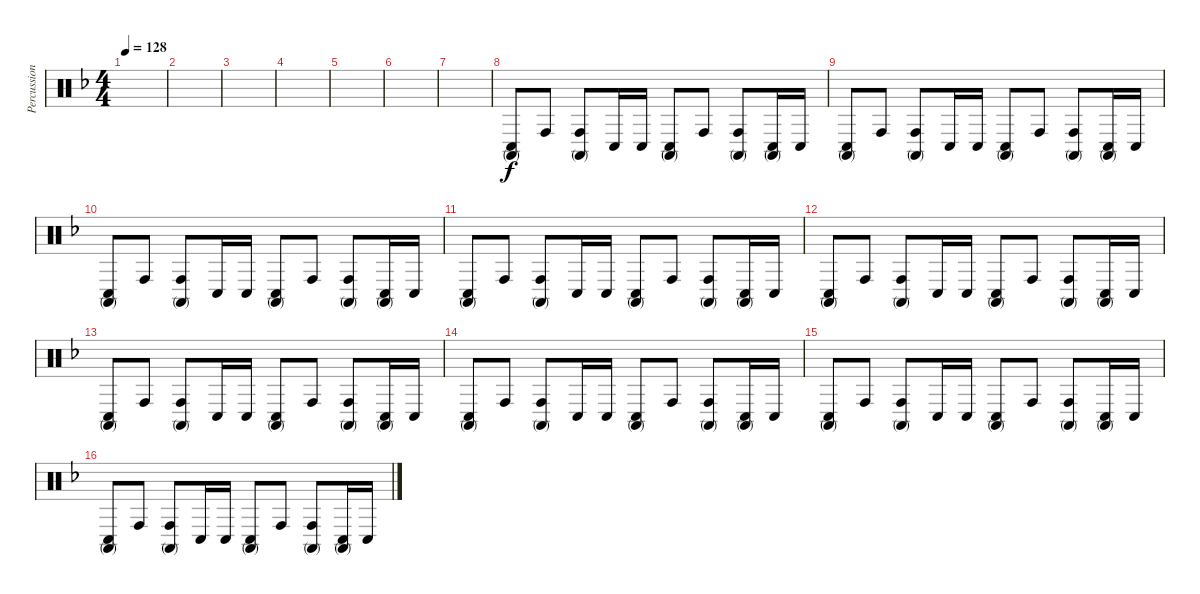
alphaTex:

\track ("Percussion" "Percussion") {instrument percussion}
\staff {score}
\articulation defaults
\ts (4 4)
\tempo 128
\clef neutral
\ks f
|
|
|
|
|
|
|
("Conga high (mute)" "Conga low (hit)").8 "Conga high (hit)".8 ("Conga high (mute)" "Conga high (hit)").8 "Conga low (hit)".16 "Conga low (hit)".16 ("Conga high (mute)" "Conga low (hit)").8 "Conga high (hit)".8 ("Conga high (mute)" "Conga high (hit)").8 ("Conga high (mute)" "Conga low (hit)").16 "Conga low (hit)".16 |
("Conga high (mute)" "Conga low (hit)").8 "Conga high (hit)".8 ("Conga high (mute)" "Conga high (hit)").8 "Conga low (hit)".16 "Conga low (hit)".16 ("Conga high (mute)" "Conga low (hit)").8 "Conga high (hit)".8 ("Conga high (mute)" "Conga high (hit)").8 ("Conga high (mute)" "Conga low (hit)").16 "Conga low (hit)".16 |
("Conga high (mute)" "Conga low (hit)").8 "Conga high (hit)".8 ("Conga high (mute)" "Conga high (hit)").8 "Conga low (hit)".16 "Conga low (hit)".16 ("Conga high (mute)" "Conga low (hit)").8 "Conga high (hit)".8 ("Conga high (mute)" "Conga high (hit)").8 ("Conga high (mute)" "Conga low (hit)").16 "Conga low (hit)".16 |
("Conga high (mute)" "Conga low (hit)").8 "Conga high (hit)".8 ("Conga high (mute)" "Conga high (hit)").8 "Conga low (hit)".16 "Conga low (hit)".16 ("Conga high (mute)" "Conga low (hit)").8 "Conga high (hit)".8 ("Conga high (mute)" "Conga high (hit)").8 ("Conga high (mute)" "Conga low (hit)").16 "Conga low (hit)".16 |
("Conga high (mute)" "Conga low (hit)").8 "Conga high (hit)".8 ("Conga high (mute)" "Conga high (hit)").8 "Conga low (hit)".16 "Conga low (hit)".16 ("Conga high (mute)" "Conga low (hit)").8 "Conga high (hit)".8 ("Conga high (mute)" "Conga high (hit)").8 ("Conga high (mute)" "Conga low (hit)").16 "Conga low (hit)".16 |
("Conga high (mute)" "Conga low (hit)").8 "Conga high (hit)".8 ("Conga high (mute)" "Conga high (hit)").8 "Conga low (hit)".16 "Conga low (hit)".16 ("Conga high (mute)" "Conga low (hit)").8 "Conga high (hit)".8 ("Conga high (mute)" "Conga high (hit)").8 ("Conga high (mute)" "Conga low (hit)").16 "Conga low (hit)".16 |
("Conga high (mute)" "Conga low (hit)").8 "Conga high (hit)".8 ("Conga high (mute)" "Conga high (hit)").8 "Conga low (hit)".16 "Conga low (hit)".16 ("Conga high (mute)" "Conga low (hit)").8 "Conga high (hit)".8 ("Conga high (mute)" "Conga high (hit)").8 ("Conga high (mute)" "Conga low (hit)").16 "Conga low (hit)".16 |
("Conga high (mute)" "Conga low (hit)").8 "Conga high (hit)".8 ("Conga high (mute)" "Conga high (hit)").8 "Conga low (hit)".16 "Conga low (hit)".16 ("Conga high (mute)" "Conga low (hit)").8 "Conga high (hit)".8 ("Conga high (mute)" "Conga high (hit)").8 ("Conga high (mute)" "Conga low (hit)").16 "Conga low (hit)".16 |
("Conga high (mute)" "Conga low (hit)").8 "Conga high (hit)".8 ("Conga high (mute)" "Conga high (hit)").8 "Conga low (hit)".16 "Conga low (hit)".16 ("Conga high (mute)" "Conga low (hit)").8 "Conga high (hit)".8 ("Conga high (mute)" "Conga high (hit)").8 ("Conga high (mute)" "Conga low (hit)").16 "Conga low (hit)".16
